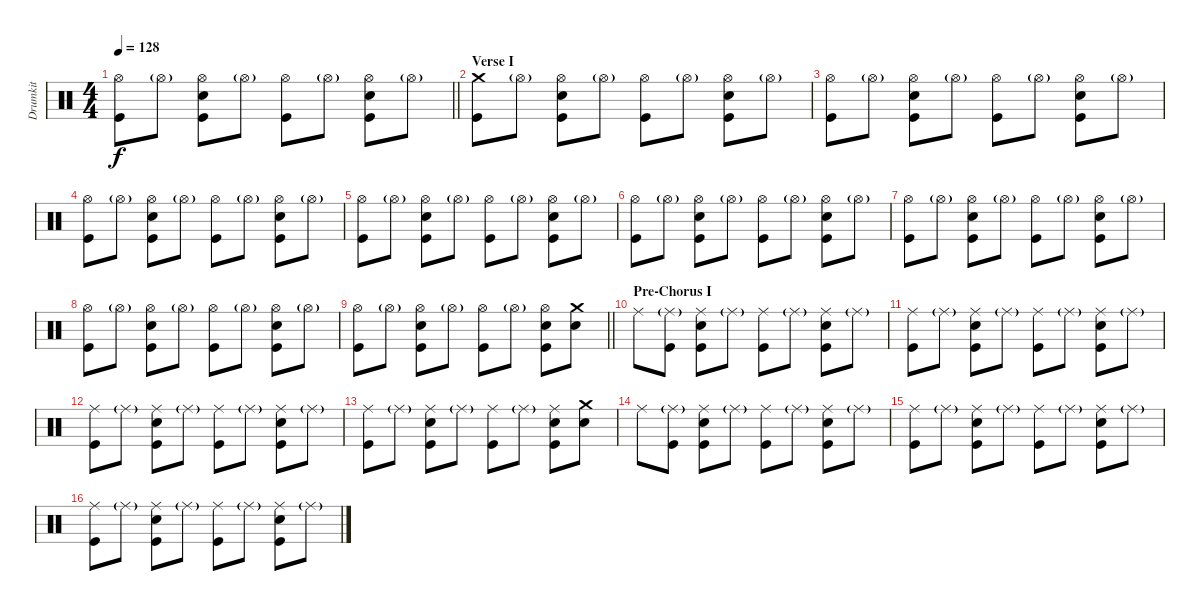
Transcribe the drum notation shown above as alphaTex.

\track ("Drumkit" "Drumkit") {instrument percussion}
\staff
\articulation defaults
\ts (4 4)
\tempo 128
\clef neutral
\barLineRight lightlight
\ks c
("Hi-Hat (open)" "Kick (hit)").8{dy f} "Hi-Hat (open)"{g}.8 ("Hi-Hat (open)" "Kick (hit)" "Snare (hit) 2").8 "Hi-Hat (open)"{g}.8 ("Hi-Hat (open)" "Kick (hit)").8 "Hi-Hat (open)"{g}.8 ("Hi-Hat (open)" "Kick (hit)" "Snare (hit) 2").8 "Hi-Hat (open)"{g}.8 |
\section ("" "Verse I")
("Crash medium (hit)" "Kick (hit)").8 "Hi-Hat (open)"{g}.8 ("Hi-Hat (open)" "Kick (hit)" "Snare (hit) 2").8 "Hi-Hat (open)"{g}.8 ("Hi-Hat (open)" "Kick (hit)").8 "Hi-Hat (open)"{g}.8 ("Hi-Hat (open)" "Kick (hit)" "Snare (hit) 2").8 "Hi-Hat (open)"{g}.8 |
("Hi-Hat (open)" "Kick (hit)").8 "Hi-Hat (open)"{g}.8 ("Hi-Hat (open)" "Kick (hit)" "Snare (hit) 2").8 "Hi-Hat (open)"{g}.8 ("Hi-Hat (open)" "Kick (hit)").8 "Hi-Hat (open)"{g}.8 ("Hi-Hat (open)" "Kick (hit)" "Snare (hit) 2").8 "Hi-Hat (open)"{g}.8 |
("Hi-Hat (open)" "Kick (hit)").8 "Hi-Hat (open)"{g}.8 ("Hi-Hat (open)" "Kick (hit)" "Snare (hit) 2").8 "Hi-Hat (open)"{g}.8 ("Hi-Hat (open)" "Kick (hit)").8 "Hi-Hat (open)"{g}.8 ("Hi-Hat (open)" "Kick (hit)" "Snare (hit) 2").8 "Hi-Hat (open)"{g}.8 |
("Hi-Hat (open)" "Kick (hit)").8 "Hi-Hat (open)"{g}.8 ("Hi-Hat (open)" "Kick (hit)" "Snare (hit) 2").8 "Hi-Hat (open)"{g}.8 ("Hi-Hat (open)" "Kick (hit)").8 "Hi-Hat (open)"{g}.8 ("Hi-Hat (open)" "Kick (hit)" "Snare (hit) 2").8 "Hi-Hat (open)"{g}.8 |
("Hi-Hat (open)" "Kick (hit)").8 "Hi-Hat (open)"{g}.8 ("Hi-Hat (open)" "Kick (hit)" "Snare (hit) 2").8 "Hi-Hat (open)"{g}.8 ("Hi-Hat (open)" "Kick (hit)").8 "Hi-Hat (open)"{g}.8 ("Hi-Hat (open)" "Kick (hit)" "Snare (hit) 2").8 "Hi-Hat (open)"{g}.8 |
("Hi-Hat (open)" "Kick (hit)").8 "Hi-Hat (open)"{g}.8 ("Hi-Hat (open)" "Kick (hit)" "Snare (hit) 2").8 "Hi-Hat (open)"{g}.8 ("Hi-Hat (open)" "Kick (hit)").8 "Hi-Hat (open)"{g}.8 ("Hi-Hat (open)" "Kick (hit)" "Snare (hit) 2").8 "Hi-Hat (open)"{g}.8 |
("Hi-Hat (open)" "Kick (hit)").8 "Hi-Hat (open)"{g}.8 ("Hi-Hat (open)" "Kick (hit)" "Snare (hit) 2").8 "Hi-Hat (open)"{g}.8 ("Hi-Hat (open)" "Kick (hit)").8 "Hi-Hat (open)"{g}.8 ("Hi-Hat (open)" "Kick (hit)" "Snare (hit) 2").8 "Hi-Hat (open)"{g}.8 |
\barLineRight lightlight
("Hi-Hat (open)" "Kick (hit)").8 "Hi-Hat (open)"{g}.8 ("Hi-Hat (open)" "Kick (hit)" "Snare (hit) 2").8 "Hi-Hat (open)"{g}.8 ("Hi-Hat (open)" "Kick (hit)").8 "Hi-Hat (open)"{g}.8 ("Hi-Hat (open)" "Kick (hit)" "Snare (hit) 2").8 ("Crash medium (hit)" "Snare (hit) 2").8 |
\section ("" "Pre-Chorus I")
"Ride (middle)".8 ("Ride (middle)"{g} "Kick (hit)").8 ("Ride (middle)" "Snare (hit) 2" "Kick (hit)").8 "Ride (middle)"{g}.8 ("Ride (middle)" "Kick (hit)").8 "Ride (middle)"{g}.8 ("Ride (middle)" "Snare (hit) 2" "Kick (hit)").8 "Ride (middle)"{g}.8 |
("Ride (middle)" "Kick (hit)").8 "Ride (middle)"{g}.8 ("Ride (middle)" "Snare (hit) 2" "Kick (hit)").8 "Ride (middle)"{g}.8 ("Ride (middle)" "Kick (hit)").8 "Ride (middle)"{g}.8 ("Ride (middle)" "Snare (hit) 2" "Kick (hit)").8 "Ride (middle)"{g}.8 |
("Ride (middle)" "Kick (hit)").8 "Ride (middle)"{g}.8 ("Ride (middle)" "Snare (hit) 2" "Kick (hit)").8 "Ride (middle)"{g}.8 ("Ride (middle)" "Kick (hit)").8 "Ride (middle)"{g}.8 ("Ride (middle)" "Snare (hit) 2" "Kick (hit)").8 "Ride (middle)"{g}.8 |
("Ride (middle)" "Kick (hit)").8 "Ride (middle)"{g}.8 ("Ride (middle)" "Snare (hit) 2" "Kick (hit)").8 "Ride (middle)"{g}.8 ("Ride (middle)" "Kick (hit)").8 "Ride (middle)"{g}.8 ("Ride (middle)" "Snare (hit) 2" "Kick (hit)").8 ("Crash medium (hit)" "Snare (hit) 2").8 |
"Ride (middle)".8 ("Ride (middle)"{g} "Kick (hit)").8 ("Ride (middle)" "Snare (hit) 2" "Kick (hit)").8 "Ride (middle)"{g}.8 ("Ride (middle)" "Kick (hit)").8 "Ride (middle)"{g}.8 ("Ride (middle)" "Snare (hit) 2" "Kick (hit)").8 "Ride (middle)"{g}.8 |
("Ride (middle)" "Kick (hit)").8 "Ride (middle)"{g}.8 ("Ride (middle)" "Snare (hit) 2" "Kick (hit)").8 "Ride (middle)"{g}.8 ("Ride (middle)" "Kick (hit)").8 "Ride (middle)"{g}.8 ("Ride (middle)" "Snare (hit) 2" "Kick (hit)").8 "Ride (middle)"{g}.8 |
("Ride (middle)" "Kick (hit)").8 "Ride (middle)"{g}.8 ("Ride (middle)" "Snare (hit) 2" "Kick (hit)").8 "Ride (middle)"{g}.8 ("Ride (middle)" "Kick (hit)").8 "Ride (middle)"{g}.8 ("Ride (middle)" "Snare (hit) 2" "Kick (hit)").8 "Ride (middle)"{g}.8
